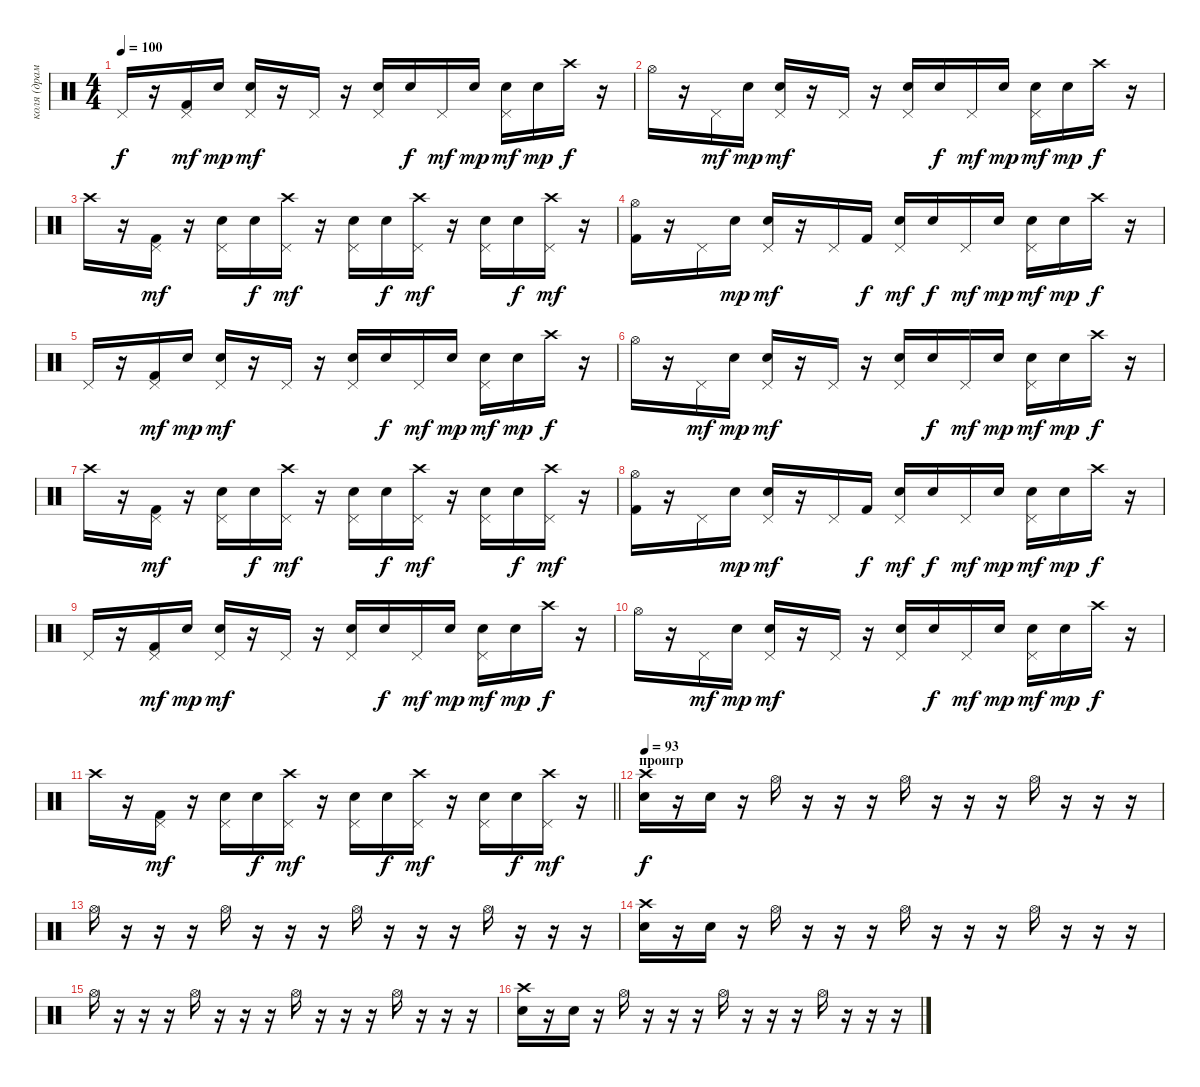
\track ("коля (драммы)" "коля (драм") {instrument percussion}
\staff {score}
\articulation defaults
\ts (4 4)
\tempo 100
\clef neutral
\ks c "Pedal Hi-Hat (hit)".16{dy f}
r.16 ("Pedal Hi-Hat (hit)" "Kick (hit) 2").16{dy mf} "Snare (hit) 2".16{dy mp} ("Snare (hit) 2" "Pedal Hi-Hat (hit)").16{dy mf} r.16 "Pedal Hi-Hat (hit)".16 r.16 ("Snare (hit) 2" "Pedal Hi-Hat (hit)").16 "Snare (hit) 2".16{dy f} "Pedal Hi-Hat (hit)".16{dy mf} "Snare (hit) 2".16{dy mp} ("Snare (hit) 2" "Pedal Hi-Hat (hit)").16{dy mf} "Snare (hit) 2".16{dy mp} "Crash high (hit)".16{dy f} r.16 |
"Hi-Hat (open)".16 r.16 "Pedal Hi-Hat (hit)".16{dy mf} "Snare (hit) 2".16{dy mp} ("Snare (hit) 2" "Pedal Hi-Hat (hit)").16{dy mf} r.16 "Pedal Hi-Hat (hit)".16 r.16 ("Snare (hit) 2" "Pedal Hi-Hat (hit)").16 "Snare (hit) 2".16{dy f} "Pedal Hi-Hat (hit)".16{dy mf} "Snare (hit) 2".16{dy mp} ("Snare (hit) 2" "Pedal Hi-Hat (hit)").16{dy mf} "Snare (hit) 2".16{dy mp} "Crash high (hit)".16{dy f} r.16 |
"Crash high (hit)".16 r.16 ("Pedal Hi-Hat (hit)" "Kick (hit) 2").16{dy mf} r.16 ("Snare (hit) 2" "Pedal Hi-Hat (hit)").16 "Snare (hit) 2".16{dy f} ("Crash high (hit)" "Pedal Hi-Hat (hit)").16{dy mf} r.16 ("Snare (hit) 2" "Pedal Hi-Hat (hit)").16 "Snare (hit) 2".16{dy f} ("Crash high (hit)" "Pedal Hi-Hat (hit)").16{dy mf} r.16 ("Snare (hit) 2" "Pedal Hi-Hat (hit)").16 "Snare (hit) 2".16{dy f} ("Crash high (hit)" "Pedal Hi-Hat (hit)").16{dy mf} r.16 |
("Hi-Hat (open)" "Kick (hit) 2").16 r.16 "Pedal Hi-Hat (hit)".16 "Snare (hit) 2".16{dy mp} ("Snare (hit) 2" "Pedal Hi-Hat (hit)").16{dy mf} r.16 "Pedal Hi-Hat (hit)".16 "Kick (hit) 2".16{dy f} ("Snare (hit) 2" "Pedal Hi-Hat (hit)").16{dy mf} "Snare (hit) 2".16{dy f} "Pedal Hi-Hat (hit)".16{dy mf} "Snare (hit) 2".16{dy mp} ("Snare (hit) 2" "Pedal Hi-Hat (hit)").16{dy mf} "Snare (hit) 2".16{dy mp} "Crash high (hit)".16{dy f} r.16 |
"Pedal Hi-Hat (hit)".16 r.16 ("Pedal Hi-Hat (hit)" "Kick (hit) 2").16{dy mf} "Snare (hit) 2".16{dy mp} ("Snare (hit) 2" "Pedal Hi-Hat (hit)").16{dy mf} r.16 "Pedal Hi-Hat (hit)".16 r.16 ("Snare (hit) 2" "Pedal Hi-Hat (hit)").16 "Snare (hit) 2".16{dy f} "Pedal Hi-Hat (hit)".16{dy mf} "Snare (hit) 2".16{dy mp} ("Snare (hit) 2" "Pedal Hi-Hat (hit)").16{dy mf} "Snare (hit) 2".16{dy mp} "Crash high (hit)".16{dy f} r.16 |
"Hi-Hat (open)".16 r.16 "Pedal Hi-Hat (hit)".16{dy mf} "Snare (hit) 2".16{dy mp} ("Snare (hit) 2" "Pedal Hi-Hat (hit)").16{dy mf} r.16 "Pedal Hi-Hat (hit)".16 r.16 ("Snare (hit) 2" "Pedal Hi-Hat (hit)").16 "Snare (hit) 2".16{dy f} "Pedal Hi-Hat (hit)".16{dy mf} "Snare (hit) 2".16{dy mp} ("Snare (hit) 2" "Pedal Hi-Hat (hit)").16{dy mf} "Snare (hit) 2".16{dy mp} "Crash high (hit)".16{dy f} r.16 |
"Crash high (hit)".16 r.16 ("Pedal Hi-Hat (hit)" "Kick (hit) 2").16{dy mf} r.16 ("Snare (hit) 2" "Pedal Hi-Hat (hit)").16 "Snare (hit) 2".16{dy f} ("Crash high (hit)" "Pedal Hi-Hat (hit)").16{dy mf} r.16 ("Snare (hit) 2" "Pedal Hi-Hat (hit)").16 "Snare (hit) 2".16{dy f} ("Crash high (hit)" "Pedal Hi-Hat (hit)").16{dy mf} r.16 ("Snare (hit) 2" "Pedal Hi-Hat (hit)").16 "Snare (hit) 2".16{dy f} ("Crash high (hit)" "Pedal Hi-Hat (hit)").16{dy mf} r.16 |
("Hi-Hat (open)" "Kick (hit) 2").16 r.16 "Pedal Hi-Hat (hit)".16 "Snare (hit) 2".16{dy mp} ("Snare (hit) 2" "Pedal Hi-Hat (hit)").16{dy mf} r.16 "Pedal Hi-Hat (hit)".16 "Kick (hit) 2".16{dy f} ("Snare (hit) 2" "Pedal Hi-Hat (hit)").16{dy mf} "Snare (hit) 2".16{dy f} "Pedal Hi-Hat (hit)".16{dy mf} "Snare (hit) 2".16{dy mp} ("Snare (hit) 2" "Pedal Hi-Hat (hit)").16{dy mf} "Snare (hit) 2".16{dy mp} "Crash high (hit)".16{dy f} r.16 |
"Pedal Hi-Hat (hit)".16 r.16 ("Pedal Hi-Hat (hit)" "Kick (hit) 2").16{dy mf} "Snare (hit) 2".16{dy mp} ("Snare (hit) 2" "Pedal Hi-Hat (hit)").16{dy mf} r.16 "Pedal Hi-Hat (hit)".16 r.16 ("Snare (hit) 2" "Pedal Hi-Hat (hit)").16 "Snare (hit) 2".16{dy f} "Pedal Hi-Hat (hit)".16{dy mf} "Snare (hit) 2".16{dy mp} ("Snare (hit) 2" "Pedal Hi-Hat (hit)").16{dy mf} "Snare (hit) 2".16{dy mp} "Crash high (hit)".16{dy f} r.16 |
"Hi-Hat (open)".16 r.16 "Pedal Hi-Hat (hit)".16{dy mf} "Snare (hit) 2".16{dy mp} ("Snare (hit) 2" "Pedal Hi-Hat (hit)").16{dy mf} r.16 "Pedal Hi-Hat (hit)".16 r.16 ("Snare (hit) 2" "Pedal Hi-Hat (hit)").16 "Snare (hit) 2".16{dy f} "Pedal Hi-Hat (hit)".16{dy mf} "Snare (hit) 2".16{dy mp} ("Snare (hit) 2" "Pedal Hi-Hat (hit)").16{dy mf} "Snare (hit) 2".16{dy mp} "Crash high (hit)".16{dy f} r.16 |
\barLineRight lightlight "Crash high (hit)".16
r.16 ("Pedal Hi-Hat (hit)" "Kick (hit) 2").16{dy mf} r.16 ("Snare (hit) 2" "Pedal Hi-Hat (hit)").16 "Snare (hit) 2".16{dy f} ("Crash high (hit)" "Pedal Hi-Hat (hit)").16{dy mf} r.16 ("Snare (hit) 2" "Pedal Hi-Hat (hit)").16 "Snare (hit) 2".16{dy f} ("Crash high (hit)" "Pedal Hi-Hat (hit)").16{dy mf} r.16 ("Snare (hit) 2" "Pedal Hi-Hat (hit)").16 "Snare (hit) 2".16{dy f} ("Crash high (hit)" "Pedal Hi-Hat (hit)").16{dy mf} r.16 |
\section ("" "проигр")
\tempo 93
("Snare (hit) 2" "Crash high (hit)").16{dy f} r.16 "Snare (hit) 2".16 r.16 "Hi-Hat (open)".16 r.16 r.16 r.16 "Hi-Hat (open)".16 r.16 r.16 r.16 "Hi-Hat (open)".16 r.16 r.16 r.16 |
"Hi-Hat (open)".16 r.16 r.16 r.16 "Hi-Hat (open)".16 r.16 r.16 r.16 "Hi-Hat (open)".16 r.16 r.16 r.16 "Hi-Hat (open)".16 r.16 r.16 r.16 |
("Snare (hit) 2" "Crash high (hit)").16 r.16 "Snare (hit) 2".16 r.16 "Hi-Hat (open)".16 r.16 r.16 r.16 "Hi-Hat (open)".16 r.16 r.16 r.16 "Hi-Hat (open)".16 r.16 r.16 r.16 |
"Hi-Hat (open)".16 r.16 r.16 r.16 "Hi-Hat (open)".16 r.16 r.16 r.16 "Hi-Hat (open)".16 r.16 r.16 r.16 "Hi-Hat (open)".16 r.16 r.16 r.16 |
("Snare (hit) 2" "Crash high (hit)").16 r.16 "Snare (hit) 2".16 r.16 "Hi-Hat (open)".16 r.16 r.16 r.16 "Hi-Hat (open)".16 r.16 r.16 r.16 "Hi-Hat (open)".16 r.16 r.16 r.16
